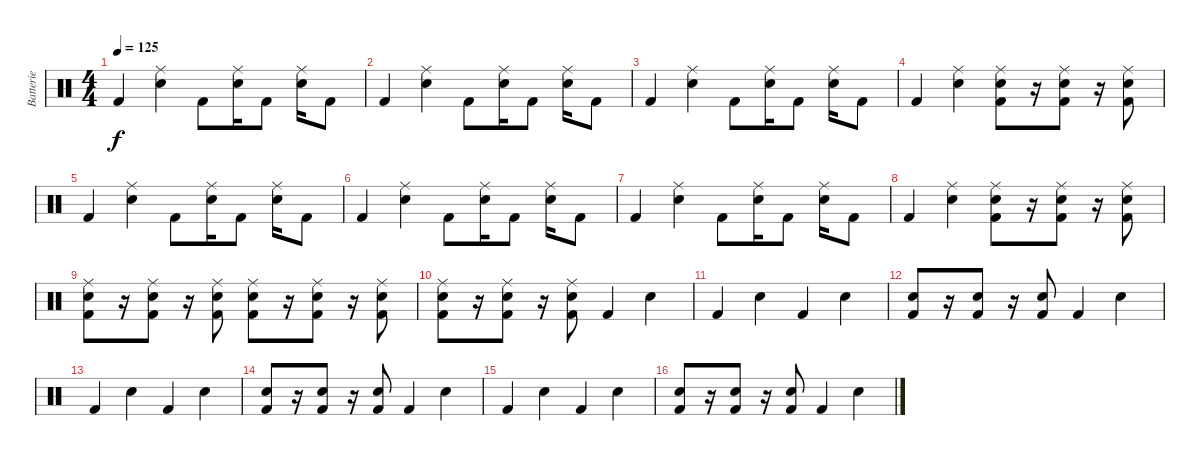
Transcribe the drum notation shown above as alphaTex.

\track ("Batterie" "Batterie") {instrument percussion}
\staff {score}
\articulation defaults
\ts (4 4)
\tempo 125
\clef neutral
\ks c "Kick (hit) 2".4{dy f}
("Snare (hit) 2" "Ride (middle)").4 "Kick (hit) 2".8 ("Snare (hit) 2" "Ride (middle)").16 "Kick (hit) 2".8 ("Snare (hit) 2" "Ride (middle)").16 "Kick (hit) 2".8 |
"Kick (hit) 2".4 ("Snare (hit) 2" "Ride (middle)").4 "Kick (hit) 2".8 ("Snare (hit) 2" "Ride (middle)").16 "Kick (hit) 2".8 ("Snare (hit) 2" "Ride (middle)").16 "Kick (hit) 2".8 |
"Kick (hit) 2".4 ("Snare (hit) 2" "Ride (middle)").4 "Kick (hit) 2".8 ("Snare (hit) 2" "Ride (middle)").16 "Kick (hit) 2".8 ("Snare (hit) 2" "Ride (middle)").16 "Kick (hit) 2".8 |
"Kick (hit) 2".4 ("Snare (hit) 2" "Ride (middle)").4 ("Kick (hit) 2" "Snare (hit) 2" "Ride (middle)").8 r.16 ("Kick (hit) 2" "Snare (hit) 2" "Ride (middle)").8 r.16 ("Kick (hit) 2" "Snare (hit) 2" "Ride (middle)").8 |
"Kick (hit) 2".4 ("Snare (hit) 2" "Ride (middle)").4 "Kick (hit) 2".8 ("Snare (hit) 2" "Ride (middle)").16 "Kick (hit) 2".8 ("Snare (hit) 2" "Ride (middle)").16 "Kick (hit) 2".8 |
"Kick (hit) 2".4 ("Snare (hit) 2" "Ride (middle)").4 "Kick (hit) 2".8 ("Snare (hit) 2" "Ride (middle)").16 "Kick (hit) 2".8 ("Snare (hit) 2" "Ride (middle)").16 "Kick (hit) 2".8 |
"Kick (hit) 2".4 ("Snare (hit) 2" "Ride (middle)").4 "Kick (hit) 2".8 ("Snare (hit) 2" "Ride (middle)").16 "Kick (hit) 2".8 ("Snare (hit) 2" "Ride (middle)").16 "Kick (hit) 2".8 |
"Kick (hit) 2".4 ("Snare (hit) 2" "Ride (middle)").4 ("Kick (hit) 2" "Snare (hit) 2" "Ride (middle)").8 r.16 ("Kick (hit) 2" "Snare (hit) 2" "Ride (middle)").8 r.16 ("Kick (hit) 2" "Snare (hit) 2" "Ride (middle)").8 |
("Kick (hit) 2" "Snare (hit) 2" "Ride (middle)").8 r.16 ("Kick (hit) 2" "Snare (hit) 2" "Ride (middle)").8 r.16 ("Kick (hit) 2" "Snare (hit) 2" "Ride (middle)").8 ("Kick (hit) 2" "Snare (hit) 2" "Ride (middle)").8 r.16 ("Kick (hit) 2" "Snare (hit) 2" "Ride (middle)").8 r.16 ("Kick (hit) 2" "Snare (hit) 2" "Ride (middle)").8 |
("Kick (hit) 2" "Snare (hit) 2" "Ride (middle)").8 r.16 ("Kick (hit) 2" "Snare (hit) 2" "Ride (middle)").8 r.16 ("Kick (hit) 2" "Snare (hit) 2" "Ride (middle)").8 "Kick (hit) 2".4 "Snare (hit) 2".4 |
\section ("" "")
"Kick (hit) 2".4 "Snare (hit) 2".4 "Kick (hit) 2".4 "Snare (hit) 2".4 |
("Kick (hit) 2" "Snare (hit) 2").8 r.16 ("Kick (hit) 2" "Snare (hit) 2").8 r.16 ("Kick (hit) 2" "Snare (hit) 2").8 "Kick (hit) 2".4 "Snare (hit) 2".4 |
"Kick (hit) 2".4 "Snare (hit) 2".4 "Kick (hit) 2".4 "Snare (hit) 2".4 |
("Kick (hit) 2" "Snare (hit) 2").8 r.16 ("Kick (hit) 2" "Snare (hit) 2").8 r.16 ("Kick (hit) 2" "Snare (hit) 2").8 "Kick (hit) 2".4 "Snare (hit) 2".4 |
"Kick (hit) 2".4 "Snare (hit) 2".4 "Kick (hit) 2".4 "Snare (hit) 2".4 |
("Kick (hit) 2" "Snare (hit) 2").8 r.16 ("Kick (hit) 2" "Snare (hit) 2").8 r.16 ("Kick (hit) 2" "Snare (hit) 2").8 "Kick (hit) 2".4 "Snare (hit) 2".4
